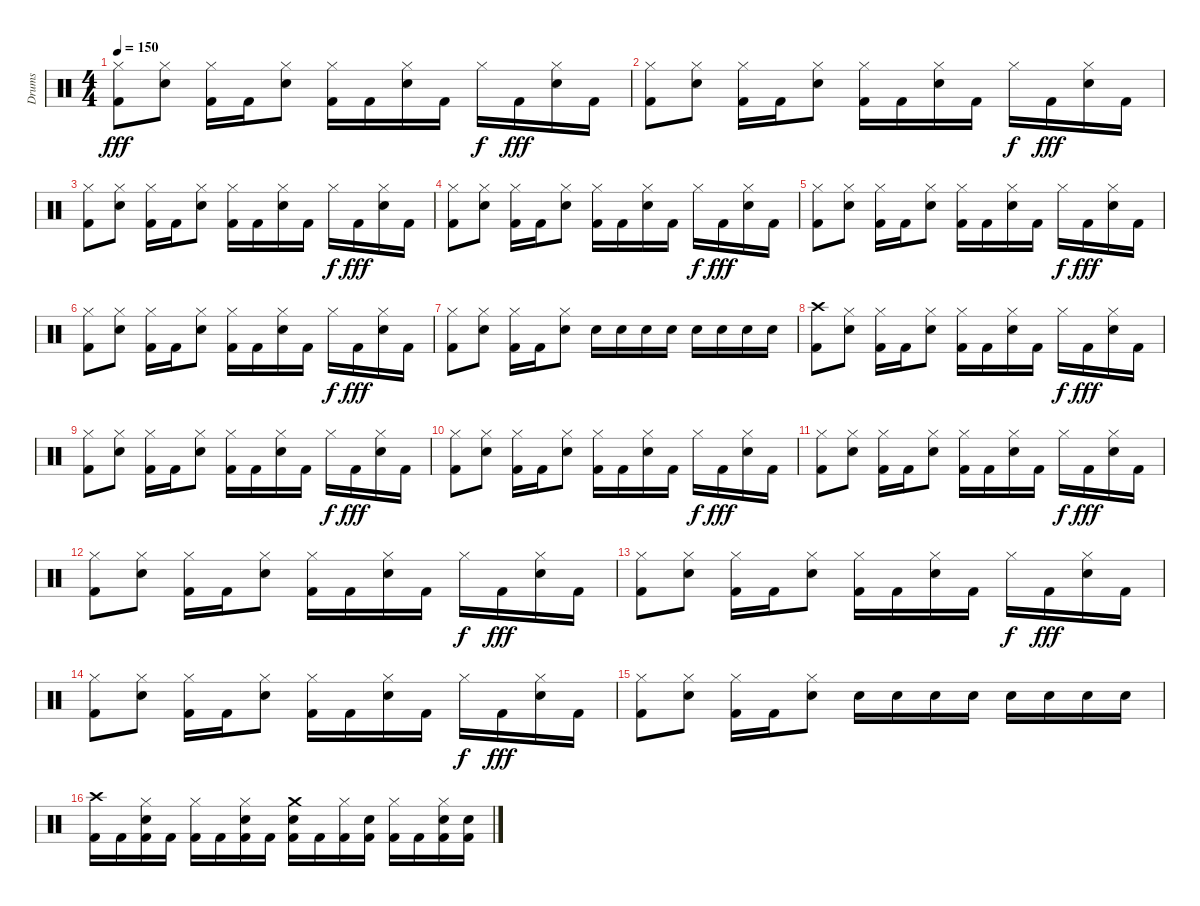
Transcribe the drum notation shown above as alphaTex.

\track ("Drums" "Drums") {instrument percussion}
\staff {score}
\articulation defaults
\ts (4 4)
\tempo 150
\clef neutral
\ks c
("Kick (hit) 2" "Hi-Hat (closed)").8{dy fff} ("Hi-Hat (closed)" "Snare (hit) 2").8 ("Kick (hit) 2" "Hi-Hat (closed)").16 "Kick (hit) 2".16 ("Hi-Hat (closed)" "Snare (hit) 2").8 ("Kick (hit) 2" "Hi-Hat (closed)").16 "Kick (hit) 2".16 ("Hi-Hat (closed)" "Snare (hit) 2").16 "Kick (hit) 2".16 "Hi-Hat (closed)".16{dy f} "Kick (hit) 2".16{dy fff} ("Hi-Hat (closed)" "Snare (hit) 2").16 "Kick (hit) 2".16 |
("Kick (hit) 2" "Hi-Hat (closed)").8 ("Hi-Hat (closed)" "Snare (hit) 2").8 ("Kick (hit) 2" "Hi-Hat (closed)").16 "Kick (hit) 2".16 ("Hi-Hat (closed)" "Snare (hit) 2").8 ("Kick (hit) 2" "Hi-Hat (closed)").16 "Kick (hit) 2".16 ("Hi-Hat (closed)" "Snare (hit) 2").16 "Kick (hit) 2".16 "Hi-Hat (closed)".16{dy f} "Kick (hit) 2".16{dy fff} ("Hi-Hat (closed)" "Snare (hit) 2").16 "Kick (hit) 2".16 |
("Kick (hit) 2" "Hi-Hat (closed)").8 ("Hi-Hat (closed)" "Snare (hit) 2").8 ("Kick (hit) 2" "Hi-Hat (closed)").16 "Kick (hit) 2".16 ("Hi-Hat (closed)" "Snare (hit) 2").8 ("Kick (hit) 2" "Hi-Hat (closed)").16 "Kick (hit) 2".16 ("Hi-Hat (closed)" "Snare (hit) 2").16 "Kick (hit) 2".16 "Hi-Hat (closed)".16{dy f} "Kick (hit) 2".16{dy fff} ("Hi-Hat (closed)" "Snare (hit) 2").16 "Kick (hit) 2".16 |
("Kick (hit) 2" "Hi-Hat (closed)").8 ("Hi-Hat (closed)" "Snare (hit) 2").8 ("Kick (hit) 2" "Hi-Hat (closed)").16 "Kick (hit) 2".16 ("Hi-Hat (closed)" "Snare (hit) 2").8 ("Kick (hit) 2" "Hi-Hat (closed)").16 "Kick (hit) 2".16 ("Hi-Hat (closed)" "Snare (hit) 2").16 "Kick (hit) 2".16 "Hi-Hat (closed)".16{dy f} "Kick (hit) 2".16{dy fff} ("Hi-Hat (closed)" "Snare (hit) 2").16 "Kick (hit) 2".16 |
("Kick (hit) 2" "Hi-Hat (closed)").8 ("Hi-Hat (closed)" "Snare (hit) 2").8 ("Kick (hit) 2" "Hi-Hat (closed)").16 "Kick (hit) 2".16 ("Hi-Hat (closed)" "Snare (hit) 2").8 ("Kick (hit) 2" "Hi-Hat (closed)").16 "Kick (hit) 2".16 ("Hi-Hat (closed)" "Snare (hit) 2").16 "Kick (hit) 2".16 "Hi-Hat (closed)".16{dy f} "Kick (hit) 2".16{dy fff} ("Hi-Hat (closed)" "Snare (hit) 2").16 "Kick (hit) 2".16 |
("Kick (hit) 2" "Hi-Hat (closed)").8 ("Hi-Hat (closed)" "Snare (hit) 2").8 ("Kick (hit) 2" "Hi-Hat (closed)").16 "Kick (hit) 2".16 ("Hi-Hat (closed)" "Snare (hit) 2").8 ("Kick (hit) 2" "Hi-Hat (closed)").16 "Kick (hit) 2".16 ("Hi-Hat (closed)" "Snare (hit) 2").16 "Kick (hit) 2".16 "Hi-Hat (closed)".16{dy f} "Kick (hit) 2".16{dy fff} ("Hi-Hat (closed)" "Snare (hit) 2").16 "Kick (hit) 2".16 |
("Kick (hit) 2" "Hi-Hat (closed)").8 ("Hi-Hat (closed)" "Snare (hit) 2").8 ("Kick (hit) 2" "Hi-Hat (closed)").16 "Kick (hit) 2".16 ("Hi-Hat (closed)" "Snare (hit) 2").8 "Snare (hit) 2".16 "Snare (hit) 2".16 "Snare (hit) 2".16 "Snare (hit) 2".16 "Snare (hit) 2".16 "Snare (hit) 2".16 "Snare (hit) 2".16 "Snare (hit) 2".16 |
("Kick (hit) 2" "Crash high (hit)").8 ("Hi-Hat (closed)" "Snare (hit) 2").8 ("Kick (hit) 2" "Hi-Hat (closed)").16 "Kick (hit) 2".16 ("Hi-Hat (closed)" "Snare (hit) 2").8 ("Kick (hit) 2" "Hi-Hat (closed)").16 "Kick (hit) 2".16 ("Hi-Hat (closed)" "Snare (hit) 2").16 "Kick (hit) 2".16 "Hi-Hat (closed)".16{dy f} "Kick (hit) 2".16{dy fff} ("Hi-Hat (closed)" "Snare (hit) 2").16 "Kick (hit) 2".16 |
("Kick (hit) 2" "Hi-Hat (closed)").8 ("Hi-Hat (closed)" "Snare (hit) 2").8 ("Kick (hit) 2" "Hi-Hat (closed)").16 "Kick (hit) 2".16 ("Hi-Hat (closed)" "Snare (hit) 2").8 ("Kick (hit) 2" "Hi-Hat (closed)").16 "Kick (hit) 2".16 ("Hi-Hat (closed)" "Snare (hit) 2").16 "Kick (hit) 2".16 "Hi-Hat (closed)".16{dy f} "Kick (hit) 2".16{dy fff} ("Hi-Hat (closed)" "Snare (hit) 2").16 "Kick (hit) 2".16 |
("Kick (hit) 2" "Hi-Hat (closed)").8 ("Hi-Hat (closed)" "Snare (hit) 2").8 ("Kick (hit) 2" "Hi-Hat (closed)").16 "Kick (hit) 2".16 ("Hi-Hat (closed)" "Snare (hit) 2").8 ("Kick (hit) 2" "Hi-Hat (closed)").16 "Kick (hit) 2".16 ("Hi-Hat (closed)" "Snare (hit) 2").16 "Kick (hit) 2".16 "Hi-Hat (closed)".16{dy f} "Kick (hit) 2".16{dy fff} ("Hi-Hat (closed)" "Snare (hit) 2").16 "Kick (hit) 2".16 |
("Kick (hit) 2" "Hi-Hat (closed)").8 ("Hi-Hat (closed)" "Snare (hit) 2").8 ("Kick (hit) 2" "Hi-Hat (closed)").16 "Kick (hit) 2".16 ("Hi-Hat (closed)" "Snare (hit) 2").8 ("Kick (hit) 2" "Hi-Hat (closed)").16 "Kick (hit) 2".16 ("Hi-Hat (closed)" "Snare (hit) 2").16 "Kick (hit) 2".16 "Hi-Hat (closed)".16{dy f} "Kick (hit) 2".16{dy fff} ("Hi-Hat (closed)" "Snare (hit) 2").16 "Kick (hit) 2".16 |
("Kick (hit) 2" "Hi-Hat (closed)").8 ("Hi-Hat (closed)" "Snare (hit) 2").8 ("Kick (hit) 2" "Hi-Hat (closed)").16 "Kick (hit) 2".16 ("Hi-Hat (closed)" "Snare (hit) 2").8 ("Kick (hit) 2" "Hi-Hat (closed)").16 "Kick (hit) 2".16 ("Hi-Hat (closed)" "Snare (hit) 2").16 "Kick (hit) 2".16 "Hi-Hat (closed)".16{dy f} "Kick (hit) 2".16{dy fff} ("Hi-Hat (closed)" "Snare (hit) 2").16 "Kick (hit) 2".16 |
("Kick (hit) 2" "Hi-Hat (closed)").8 ("Hi-Hat (closed)" "Snare (hit) 2").8 ("Kick (hit) 2" "Hi-Hat (closed)").16 "Kick (hit) 2".16 ("Hi-Hat (closed)" "Snare (hit) 2").8 ("Kick (hit) 2" "Hi-Hat (closed)").16 "Kick (hit) 2".16 ("Hi-Hat (closed)" "Snare (hit) 2").16 "Kick (hit) 2".16 "Hi-Hat (closed)".16{dy f} "Kick (hit) 2".16{dy fff} ("Hi-Hat (closed)" "Snare (hit) 2").16 "Kick (hit) 2".16 |
("Kick (hit) 2" "Hi-Hat (closed)").8 ("Hi-Hat (closed)" "Snare (hit) 2").8 ("Kick (hit) 2" "Hi-Hat (closed)").16 "Kick (hit) 2".16 ("Hi-Hat (closed)" "Snare (hit) 2").8 ("Kick (hit) 2" "Hi-Hat (closed)").16 "Kick (hit) 2".16 ("Hi-Hat (closed)" "Snare (hit) 2").16 "Kick (hit) 2".16 "Hi-Hat (closed)".16{dy f} "Kick (hit) 2".16{dy fff} ("Hi-Hat (closed)" "Snare (hit) 2").16 "Kick (hit) 2".16 |
("Kick (hit) 2" "Hi-Hat (closed)").8 ("Hi-Hat (closed)" "Snare (hit) 2").8 ("Kick (hit) 2" "Hi-Hat (closed)").16 "Kick (hit) 2".16 ("Hi-Hat (closed)" "Snare (hit) 2").8 "Snare (hit) 2".16 "Snare (hit) 2".16 "Snare (hit) 2".16 "Snare (hit) 2".16 "Snare (hit) 2".16 "Snare (hit) 2".16 "Snare (hit) 2".16 "Snare (hit) 2".16 |
("Kick (hit) 2" "Crash high (hit)").16 "Kick (hit) 2".16 ("Kick (hit) 2" "Hi-Hat (closed)" "Snare (hit) 2").16 "Kick (hit) 2".16 ("Kick (hit) 2" "Hi-Hat (closed)").16 "Kick (hit) 2".16 ("Kick (hit) 2" "Hi-Hat (closed)" "Snare (hit) 2").16 "Kick (hit) 2".16 ("Kick (hit) 2" "Crash medium (hit)" "Snare (hit) 2").16 "Kick (hit) 2".16 ("Kick (hit) 2" "Hi-Hat (closed)").16 ("Kick (hit) 2" "Snare (hit) 2").16 ("Kick (hit) 2" "Hi-Hat (closed)").16 "Kick (hit) 2".16 ("Kick (hit) 2" "Hi-Hat (closed)" "Snare (hit) 2").16 ("Kick (hit) 2" "Snare (hit) 2").16
